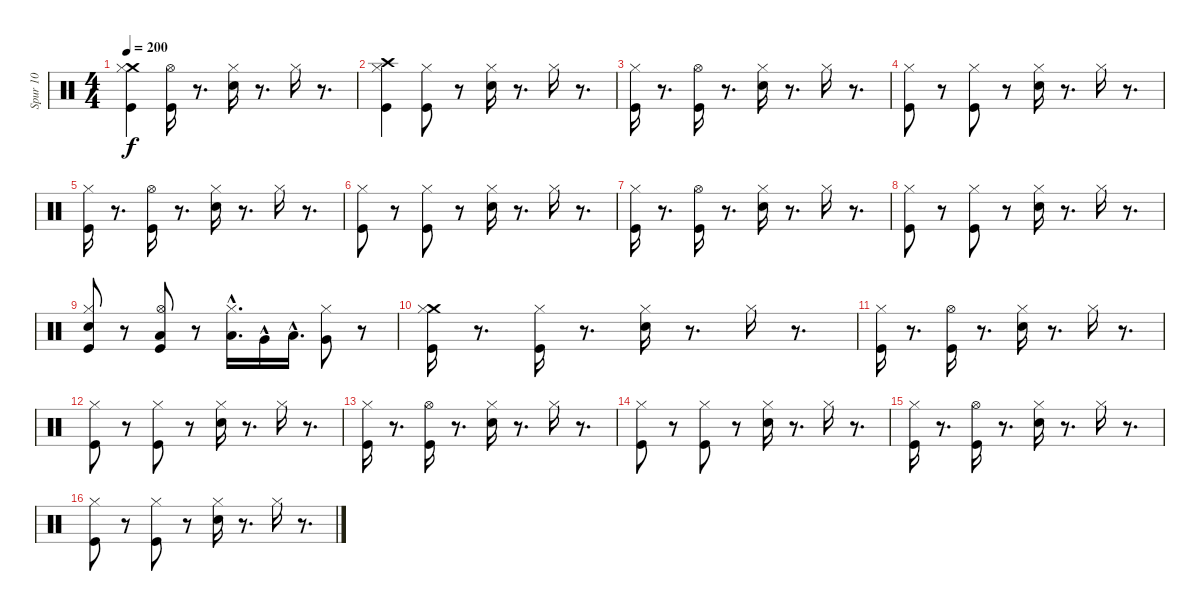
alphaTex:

\track ("Spur 10" "Spur 10") {instrument percussion}
\staff {score}
\articulation defaults
\ts (4 4)
\tempo 200
\clef neutral
\ks c
("Crash medium (hit)" "Kick (hit)" "Hi-Hat (closed)").4{dy f} ("Kick (hit)" "Hi-Hat (open)").16 r.8{d} ("Snare (hit) 2" "Hi-Hat (closed)").16 r.8{d} "Hi-Hat (closed)".16 r.8{d} |
("Crash high (hit)" "Hi-Hat (closed)" "Kick (hit)").4 ("Kick (hit)" "Hi-Hat (closed)").8 r.8 ("Snare (hit) 2" "Hi-Hat (closed)").16 r.8{d} "Hi-Hat (closed)".16 r.8{d} |
("Kick (hit)" "Hi-Hat (closed)").16 r.8{d} ("Kick (hit)" "Hi-Hat (open)").16 r.8{d} ("Snare (hit) 2" "Hi-Hat (closed)").16 r.8{d} "Hi-Hat (closed)".16 r.8{d} |
("Hi-Hat (closed)" "Kick (hit)").8 r.8 ("Kick (hit)" "Hi-Hat (closed)").8 r.8 ("Snare (hit) 2" "Hi-Hat (closed)").16 r.8{d} "Hi-Hat (closed)".16 r.8{d} |
("Kick (hit)" "Hi-Hat (closed)").16 r.8{d} ("Kick (hit)" "Hi-Hat (open)").16 r.8{d} ("Snare (hit) 2" "Hi-Hat (closed)").16 r.8{d} "Hi-Hat (closed)".16 r.8{d} |
("Hi-Hat (closed)" "Kick (hit)").8 r.8 ("Kick (hit)" "Hi-Hat (closed)").8 r.8 ("Snare (hit) 2" "Hi-Hat (closed)").16 r.8{d} "Hi-Hat (closed)".16 r.8{d} |
("Kick (hit)" "Hi-Hat (closed)").16 r.8{d} ("Kick (hit)" "Hi-Hat (open)").16 r.8{d} ("Snare (hit) 2" "Hi-Hat (closed)").16 r.8{d} "Hi-Hat (closed)".16 r.8{d} |
("Hi-Hat (closed)" "Kick (hit)").8 r.8 ("Kick (hit)" "Hi-Hat (closed)").8 r.8 ("Snare (hit) 2" "Hi-Hat (closed)").16 r.8{d} "Hi-Hat (closed)".16 r.8{d} |
("Snare (hit) 2" "Kick (hit)" "Hi-Hat (closed)").8 r.8 ("Low Tom (hit)" "Kick (hit)" "Hi-Hat (open)").8 r.8 ("Low Tom (hit)"{hac} "Hi-Hat (closed)").16{d} "Very Low Tom (hit)"{hac}.16 "Low Tom (hit)"{hac}.16{d} ("Very Low Tom (hit)" "Hi-Hat (closed)").8 r.8 |
("Kick (hit)" "Crash medium (hit)" "Hi-Hat (closed)").16 r.8{d} ("Kick (hit)" "Hi-Hat (closed)").16 r.8{d} ("Snare (hit) 2" "Hi-Hat (closed)").16 r.8{d} "Hi-Hat (closed)".16 r.8{d} |
("Kick (hit)" "Hi-Hat (closed)").16 r.8{d} ("Kick (hit)" "Hi-Hat (open)").16 r.8{d} ("Snare (hit) 2" "Hi-Hat (closed)").16 r.8{d} "Hi-Hat (closed)".16 r.8{d} |
("Hi-Hat (closed)" "Kick (hit)").8 r.8 ("Kick (hit)" "Hi-Hat (closed)").8 r.8 ("Snare (hit) 2" "Hi-Hat (closed)").16 r.8{d} "Hi-Hat (closed)".16 r.8{d} |
("Kick (hit)" "Hi-Hat (closed)").16 r.8{d} ("Kick (hit)" "Hi-Hat (open)").16 r.8{d} ("Snare (hit) 2" "Hi-Hat (closed)").16 r.8{d} "Hi-Hat (closed)".16 r.8{d} |
("Hi-Hat (closed)" "Kick (hit)").8 r.8 ("Kick (hit)" "Hi-Hat (closed)").8 r.8 ("Snare (hit) 2" "Hi-Hat (closed)").16 r.8{d} "Hi-Hat (closed)".16 r.8{d} |
("Kick (hit)" "Hi-Hat (closed)").16 r.8{d} ("Kick (hit)" "Hi-Hat (open)").16 r.8{d} ("Snare (hit) 2" "Hi-Hat (closed)").16 r.8{d} "Hi-Hat (closed)".16 r.8{d} |
("Hi-Hat (closed)" "Kick (hit)").8 r.8 ("Kick (hit)" "Hi-Hat (closed)").8 r.8 ("Snare (hit) 2" "Hi-Hat (closed)").16 r.8{d} "Hi-Hat (closed)".16 r.8{d}
